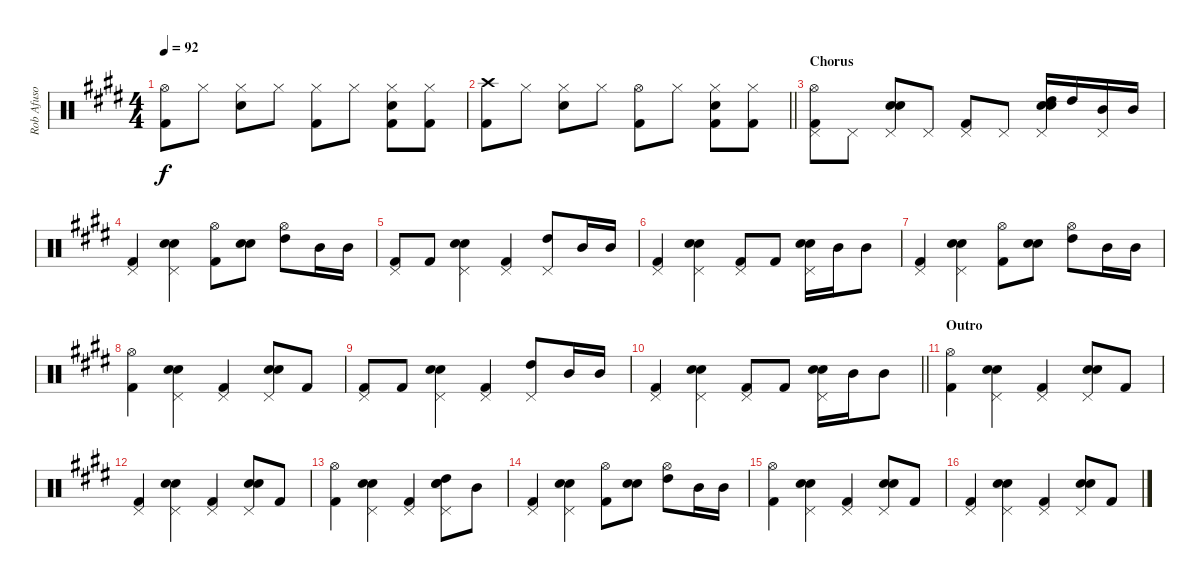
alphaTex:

\track ("Rob Afuso" "Rob Afuso") {instrument percussion}
\staff {score}
\articulation defaults
\ts (4 4)
\tempo 92
\clef neutral
\ks e
("Hi-Hat (open)" "Kick (hit) 2").8{dy f} "Hi-Hat (closed)".8 ("Hi-Hat (closed)" "Snare (hit) 2").8 "Hi-Hat (closed)".8 ("Hi-Hat (closed)" "Kick (hit) 2").8 "Hi-Hat (closed)".8 ("Hi-Hat (closed)" "Snare (hit) 2" "Kick (hit) 2").8 ("Hi-Hat (closed)" "Kick (hit) 2").8 |
\barLineRight lightlight
("Crash high (hit)" "Kick (hit) 2").8 "Hi-Hat (closed)".8 ("Hi-Hat (closed)" "Snare (hit) 2").8 "Hi-Hat (closed)".8 ("Hi-Hat (open)" "Kick (hit) 2").8 "Hi-Hat (closed)".8 ("Hi-Hat (closed)" "Snare (hit) 2" "Kick (hit) 2").8 ("Hi-Hat (closed)" "Kick (hit) 2").8 |
\section ("" "Chorus")
("Hi-Hat (open)" "Kick (hit) 2" "Pedal Hi-Hat (hit)").8 "Pedal Hi-Hat (hit)".8 ("Snare (hit) 2" "Electric Snare (hit)" "Pedal Hi-Hat (hit)").8 "Pedal Hi-Hat (hit)".8 ("Kick (hit) 2" "Pedal Hi-Hat (hit)").8 "Pedal Hi-Hat (hit)".8 ("Snare (hit) 2" "Electric Snare (hit)" "High Tom (hit)" "Pedal Hi-Hat (hit)").16 "High Tom (hit)".16 ("Mid Tom (hit)" "Pedal Hi-Hat (hit)").16 "Mid Tom (hit)".16 |
("Kick (hit) 2" "Pedal Hi-Hat (hit)").4 ("Snare (hit) 2" "Electric Snare (hit)" "Pedal Hi-Hat (hit)").4 ("Hi-Hat (open)" "Kick (hit) 2").8 ("Snare (hit) 2" "Electric Snare (hit)").8 ("Hi-Hat (open)" "High Tom (hit)").8 "Mid Tom (hit)".16 "Mid Tom (hit)".16 |
("Kick (hit) 2" "Pedal Hi-Hat (hit)").8 "Kick (hit) 2".8 ("Snare (hit) 2" "Electric Snare (hit)" "Pedal Hi-Hat (hit)").4 ("Kick (hit) 2" "Pedal Hi-Hat (hit)").4 ("High Tom (hit)" "Pedal Hi-Hat (hit)").8 "Mid Tom (hit)".16 "Mid Tom (hit)".16 |
("Kick (hit) 2" "Pedal Hi-Hat (hit)").4 ("Snare (hit) 2" "Electric Snare (hit)" "Pedal Hi-Hat (hit)").4 ("Kick (hit) 2" "Pedal Hi-Hat (hit)").8 "Kick (hit) 2".8 ("Snare (hit) 2" "Electric Snare (hit)" "Pedal Hi-Hat (hit)").16 "Mid Tom (hit)".16 "Mid Tom (hit)".8 |
("Kick (hit) 2" "Pedal Hi-Hat (hit)").4 ("Snare (hit) 2" "Electric Snare (hit)" "Pedal Hi-Hat (hit)").4 ("Hi-Hat (open)" "Kick (hit) 2").8 ("Snare (hit) 2" "Electric Snare (hit)").8 ("Hi-Hat (open)" "High Tom (hit)").8 "Mid Tom (hit)".16 "Mid Tom (hit)".16 |
("Hi-Hat (open)" "Kick (hit) 2").4 ("Snare (hit) 2" "Electric Snare (hit)" "Pedal Hi-Hat (hit)").4 ("Kick (hit) 2" "Pedal Hi-Hat (hit)").4 ("Snare (hit) 2" "Electric Snare (hit)" "Pedal Hi-Hat (hit)").8 "Kick (hit) 2".8 |
("Kick (hit) 2" "Pedal Hi-Hat (hit)").8 "Kick (hit) 2".8 ("Snare (hit) 2" "Electric Snare (hit)" "Pedal Hi-Hat (hit)").4 ("Kick (hit) 2" "Pedal Hi-Hat (hit)").4 ("High Tom (hit)" "Pedal Hi-Hat (hit)").8 "Mid Tom (hit)".16 "Mid Tom (hit)".16 |
\barLineRight lightlight
("Kick (hit) 2" "Pedal Hi-Hat (hit)").4 ("Snare (hit) 2" "Electric Snare (hit)" "Pedal Hi-Hat (hit)").4 ("Kick (hit) 2" "Pedal Hi-Hat (hit)").8 "Kick (hit) 2".8 ("Snare (hit) 2" "Electric Snare (hit)" "Pedal Hi-Hat (hit)").16 "Mid Tom (hit)".16 "Mid Tom (hit)".8 |
\section ("" "Outro")
("Hi-Hat (open)" "Kick (hit) 2").4 ("Snare (hit) 2" "Electric Snare (hit)" "Pedal Hi-Hat (hit)").4 ("Kick (hit) 2" "Pedal Hi-Hat (hit)").4 ("Snare (hit) 2" "Electric Snare (hit)" "Pedal Hi-Hat (hit)").8 "Kick (hit) 2".8 |
("Kick (hit) 2" "Pedal Hi-Hat (hit)").4 ("Snare (hit) 2" "Electric Snare (hit)" "Pedal Hi-Hat (hit)").4 ("Kick (hit) 2" "Pedal Hi-Hat (hit)").4 ("Snare (hit) 2" "Electric Snare (hit)" "Pedal Hi-Hat (hit)").8 "Kick (hit) 2".8 |
("Hi-Hat (open)" "Kick (hit) 2").4 ("Snare (hit) 2" "Electric Snare (hit)" "Pedal Hi-Hat (hit)").4 ("Kick (hit) 2" "Pedal Hi-Hat (hit)").4 ("Snare (hit) 2" "Electric Snare (hit)" "High Tom (hit)" "Pedal Hi-Hat (hit)").8 "Mid Tom (hit)".8 |
("Kick (hit) 2" "Pedal Hi-Hat (hit)").4 ("Snare (hit) 2" "Electric Snare (hit)" "Pedal Hi-Hat (hit)").4 ("Hi-Hat (open)" "Kick (hit) 2").8 ("Snare (hit) 2" "Electric Snare (hit)").8 ("Hi-Hat (open)" "High Tom (hit)").8 "Mid Tom (hit)".16 "Mid Tom (hit)".16 |
("Hi-Hat (open)" "Kick (hit) 2").4 ("Snare (hit) 2" "Electric Snare (hit)" "Pedal Hi-Hat (hit)").4 ("Kick (hit) 2" "Pedal Hi-Hat (hit)").4 ("Snare (hit) 2" "Electric Snare (hit)" "Pedal Hi-Hat (hit)").8 "Kick (hit) 2".8 |
("Kick (hit) 2" "Pedal Hi-Hat (hit)").4 ("Snare (hit) 2" "Electric Snare (hit)" "Pedal Hi-Hat (hit)").4 ("Kick (hit) 2" "Pedal Hi-Hat (hit)").4 ("Snare (hit) 2" "Electric Snare (hit)" "Pedal Hi-Hat (hit)").8 "Kick (hit) 2".8
